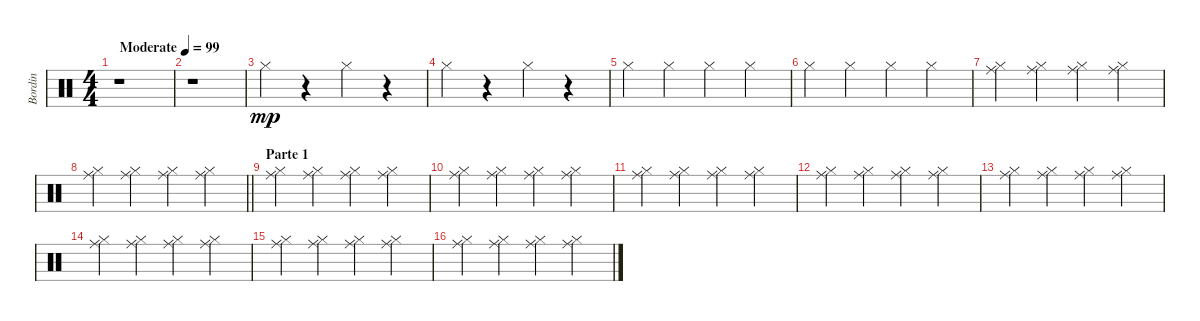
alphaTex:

\track ("Bordin" "Bordin") {instrument percussion}
\staff {score}
\articulation defaults
\ts (4 4)
\tempo (99 "Moderate")
\clef neutral
\ks c
r.1{dy mp} |
r.1 |
"Hi-Hat (closed)".4 r.4 "Hi-Hat (closed)".4 r.4 |
"Hi-Hat (closed)".4 r.4 "Hi-Hat (closed)".4 r.4 |
"Hi-Hat (closed)".4 "Hi-Hat (closed)".4 "Hi-Hat (closed)".4 "Hi-Hat (closed)".4 |
"Hi-Hat (closed)".4 "Hi-Hat (closed)".4 "Hi-Hat (closed)".4 "Hi-Hat (closed)".4 |
("Ride (middle)" "Hi-Hat (closed)").4 ("Ride (middle)" "Hi-Hat (closed)").4 ("Ride (middle)" "Hi-Hat (closed)").4 ("Ride (middle)" "Hi-Hat (closed)").4 |
\barLineRight lightlight
("Ride (middle)" "Hi-Hat (closed)").4 ("Ride (middle)" "Hi-Hat (closed)").4 ("Ride (middle)" "Hi-Hat (closed)").4 ("Ride (middle)" "Hi-Hat (closed)").4 |
\section ("" "Parte 1")
("Ride (middle)" "Hi-Hat (closed)").4 ("Ride (middle)" "Hi-Hat (closed)").4 ("Ride (middle)" "Hi-Hat (closed)").4 ("Ride (middle)" "Hi-Hat (closed)").4 |
("Ride (middle)" "Hi-Hat (closed)").4 ("Ride (middle)" "Hi-Hat (closed)").4 ("Ride (middle)" "Hi-Hat (closed)").4 ("Ride (middle)" "Hi-Hat (closed)").4 |
("Ride (middle)" "Hi-Hat (closed)").4 ("Ride (middle)" "Hi-Hat (closed)").4 ("Ride (middle)" "Hi-Hat (closed)").4 ("Ride (middle)" "Hi-Hat (closed)").4 |
("Ride (middle)" "Hi-Hat (closed)").4 ("Ride (middle)" "Hi-Hat (closed)").4 ("Ride (middle)" "Hi-Hat (closed)").4 ("Ride (middle)" "Hi-Hat (closed)").4 |
("Ride (middle)" "Hi-Hat (closed)").4 ("Ride (middle)" "Hi-Hat (closed)").4 ("Ride (middle)" "Hi-Hat (closed)").4 ("Ride (middle)" "Hi-Hat (closed)").4 |
("Ride (middle)" "Hi-Hat (closed)").4 ("Ride (middle)" "Hi-Hat (closed)").4 ("Ride (middle)" "Hi-Hat (closed)").4 ("Ride (middle)" "Hi-Hat (closed)").4 |
("Ride (middle)" "Hi-Hat (closed)").4 ("Ride (middle)" "Hi-Hat (closed)").4 ("Ride (middle)" "Hi-Hat (closed)").4 ("Ride (middle)" "Hi-Hat (closed)").4 |
("Ride (middle)" "Hi-Hat (closed)").4 ("Ride (middle)" "Hi-Hat (closed)").4 ("Ride (middle)" "Hi-Hat (closed)").4 ("Ride (middle)" "Hi-Hat (closed)").4
